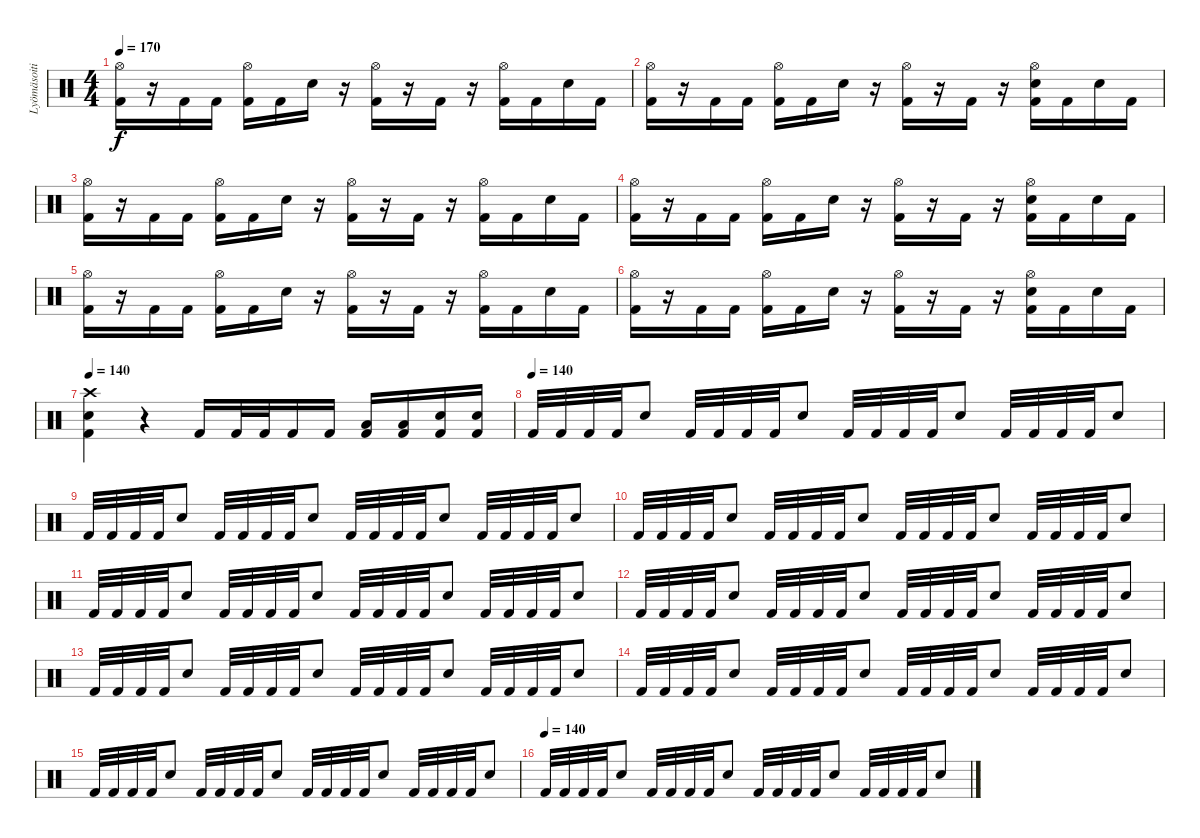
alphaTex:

\track ("Lyömäsoitin" "Lyömäsoiti") {instrument percussion}
\staff {score}
\articulation defaults
\ts (4 4)
\tempo 170
\clef neutral
\ks c
("Hi-Hat (open)" "Kick (hit) 2").16{dy f} r.16 "Kick (hit) 2".16 "Kick (hit) 2".16 ("Hi-Hat (open)" "Kick (hit) 2").16 "Kick (hit) 2".16 "Electric Snare (hit)".16 r.16 ("Hi-Hat (open)" "Kick (hit) 2").16 r.16 "Kick (hit) 2".16 r.16 ("Hi-Hat (open)" "Kick (hit) 2").16 "Kick (hit) 2".16 "Electric Snare (hit)".16 "Kick (hit) 2".16 |
("Hi-Hat (open)" "Kick (hit) 2").16 r.16 "Kick (hit) 2".16 "Kick (hit) 2".16 ("Hi-Hat (open)" "Kick (hit) 2").16 "Kick (hit) 2".16 "Electric Snare (hit)".16 r.16 ("Hi-Hat (open)" "Kick (hit) 2").16 r.16 "Kick (hit) 2".16 r.16 ("Hi-Hat (open)" "Electric Snare (hit)" "Kick (hit) 2").16 "Kick (hit) 2".16 "Electric Snare (hit)".16 "Kick (hit) 2".16 |
("Hi-Hat (open)" "Kick (hit) 2").16 r.16 "Kick (hit) 2".16 "Kick (hit) 2".16 ("Hi-Hat (open)" "Kick (hit) 2").16 "Kick (hit) 2".16 "Electric Snare (hit)".16 r.16 ("Hi-Hat (open)" "Kick (hit) 2").16 r.16 "Kick (hit) 2".16 r.16 ("Hi-Hat (open)" "Kick (hit) 2").16 "Kick (hit) 2".16 "Electric Snare (hit)".16 "Kick (hit) 2".16 |
("Hi-Hat (open)" "Kick (hit) 2").16 r.16 "Kick (hit) 2".16 "Kick (hit) 2".16 ("Hi-Hat (open)" "Kick (hit) 2").16 "Kick (hit) 2".16 "Electric Snare (hit)".16 r.16 ("Hi-Hat (open)" "Kick (hit) 2").16 r.16 "Kick (hit) 2".16 r.16 ("Hi-Hat (open)" "Electric Snare (hit)" "Kick (hit) 2").16 "Kick (hit) 2".16 "Electric Snare (hit)".16 "Kick (hit) 2".16 |
("Hi-Hat (open)" "Kick (hit) 2").16 r.16 "Kick (hit) 2".16 "Kick (hit) 2".16 ("Hi-Hat (open)" "Kick (hit) 2").16 "Kick (hit) 2".16 "Electric Snare (hit)".16 r.16 ("Hi-Hat (open)" "Kick (hit) 2").16 r.16 "Kick (hit) 2".16 r.16 ("Hi-Hat (open)" "Kick (hit) 2").16 "Kick (hit) 2".16 "Electric Snare (hit)".16 "Kick (hit) 2".16 |
("Hi-Hat (open)" "Kick (hit) 2").16 r.16 "Kick (hit) 2".16 "Kick (hit) 2".16 ("Hi-Hat (open)" "Kick (hit) 2").16 "Kick (hit) 2".16 "Electric Snare (hit)".16 r.16 ("Hi-Hat (open)" "Kick (hit) 2").16 r.16 "Kick (hit) 2".16 r.16 ("Hi-Hat (open)" "Electric Snare (hit)" "Kick (hit) 2").16 "Kick (hit) 2".16 "Electric Snare (hit)".16 "Kick (hit) 2".16 |
\tempo 140
("Crash high (hit)" "Electric Snare (hit)" "Kick (hit) 2").4 r.4 "Kick (hit) 2".16 "Kick (hit) 2".32 "Kick (hit) 2".32 "Kick (hit) 2".16 "Kick (hit) 2".16 ("Low Floor Tom (hit)" "Kick (hit) 2").16 ("Low Floor Tom (hit)" "Kick (hit) 2").16 ("Electric Snare (hit)" "Kick (hit) 2").16 ("Electric Snare (hit)" "Kick (hit) 2").16 |
\tempo (140)
"Kick (hit) 2".32 "Kick (hit) 2".32 "Kick (hit) 2".32 "Kick (hit) 2".32 "Electric Snare (hit)".8 "Kick (hit) 2".32 "Kick (hit) 2".32 "Kick (hit) 2".32 "Kick (hit) 2".32 "Electric Snare (hit)".8 "Kick (hit) 2".32 "Kick (hit) 2".32 "Kick (hit) 2".32 "Kick (hit) 2".32 "Electric Snare (hit)".8 "Kick (hit) 2".32 "Kick (hit) 2".32 "Kick (hit) 2".32 "Kick (hit) 2".32 "Electric Snare (hit)".8 |
"Kick (hit) 2".32 "Kick (hit) 2".32 "Kick (hit) 2".32 "Kick (hit) 2".32 "Electric Snare (hit)".8 "Kick (hit) 2".32 "Kick (hit) 2".32 "Kick (hit) 2".32 "Kick (hit) 2".32 "Electric Snare (hit)".8 "Kick (hit) 2".32 "Kick (hit) 2".32 "Kick (hit) 2".32 "Kick (hit) 2".32 "Electric Snare (hit)".8 "Kick (hit) 2".32 "Kick (hit) 2".32 "Kick (hit) 2".32 "Kick (hit) 2".32 "Electric Snare (hit)".8 |
"Kick (hit) 2".32 "Kick (hit) 2".32 "Kick (hit) 2".32 "Kick (hit) 2".32 "Electric Snare (hit)".8 "Kick (hit) 2".32 "Kick (hit) 2".32 "Kick (hit) 2".32 "Kick (hit) 2".32 "Electric Snare (hit)".8 "Kick (hit) 2".32 "Kick (hit) 2".32 "Kick (hit) 2".32 "Kick (hit) 2".32 "Electric Snare (hit)".8 "Kick (hit) 2".32 "Kick (hit) 2".32 "Kick (hit) 2".32 "Kick (hit) 2".32 "Electric Snare (hit)".8 |
"Kick (hit) 2".32 "Kick (hit) 2".32 "Kick (hit) 2".32 "Kick (hit) 2".32 "Electric Snare (hit)".8 "Kick (hit) 2".32 "Kick (hit) 2".32 "Kick (hit) 2".32 "Kick (hit) 2".32 "Electric Snare (hit)".8 "Kick (hit) 2".32 "Kick (hit) 2".32 "Kick (hit) 2".32 "Kick (hit) 2".32 "Electric Snare (hit)".8 "Kick (hit) 2".32 "Kick (hit) 2".32 "Kick (hit) 2".32 "Kick (hit) 2".32 "Electric Snare (hit)".8 |
"Kick (hit) 2".32 "Kick (hit) 2".32 "Kick (hit) 2".32 "Kick (hit) 2".32 "Electric Snare (hit)".8 "Kick (hit) 2".32 "Kick (hit) 2".32 "Kick (hit) 2".32 "Kick (hit) 2".32 "Electric Snare (hit)".8 "Kick (hit) 2".32 "Kick (hit) 2".32 "Kick (hit) 2".32 "Kick (hit) 2".32 "Electric Snare (hit)".8 "Kick (hit) 2".32 "Kick (hit) 2".32 "Kick (hit) 2".32 "Kick (hit) 2".32 "Electric Snare (hit)".8 |
"Kick (hit) 2".32 "Kick (hit) 2".32 "Kick (hit) 2".32 "Kick (hit) 2".32 "Electric Snare (hit)".8 "Kick (hit) 2".32 "Kick (hit) 2".32 "Kick (hit) 2".32 "Kick (hit) 2".32 "Electric Snare (hit)".8 "Kick (hit) 2".32 "Kick (hit) 2".32 "Kick (hit) 2".32 "Kick (hit) 2".32 "Electric Snare (hit)".8 "Kick (hit) 2".32 "Kick (hit) 2".32 "Kick (hit) 2".32 "Kick (hit) 2".32 "Electric Snare (hit)".8 |
"Kick (hit) 2".32 "Kick (hit) 2".32 "Kick (hit) 2".32 "Kick (hit) 2".32 "Electric Snare (hit)".8 "Kick (hit) 2".32 "Kick (hit) 2".32 "Kick (hit) 2".32 "Kick (hit) 2".32 "Electric Snare (hit)".8 "Kick (hit) 2".32 "Kick (hit) 2".32 "Kick (hit) 2".32 "Kick (hit) 2".32 "Electric Snare (hit)".8 "Kick (hit) 2".32 "Kick (hit) 2".32 "Kick (hit) 2".32 "Kick (hit) 2".32 "Electric Snare (hit)".8 |
"Kick (hit) 2".32 "Kick (hit) 2".32 "Kick (hit) 2".32 "Kick (hit) 2".32 "Electric Snare (hit)".8 "Kick (hit) 2".32 "Kick (hit) 2".32 "Kick (hit) 2".32 "Kick (hit) 2".32 "Electric Snare (hit)".8 "Kick (hit) 2".32 "Kick (hit) 2".32 "Kick (hit) 2".32 "Kick (hit) 2".32 "Electric Snare (hit)".8 "Kick (hit) 2".32 "Kick (hit) 2".32 "Kick (hit) 2".32 "Kick (hit) 2".32 "Electric Snare (hit)".8 |
\tempo (140)
"Kick (hit) 2".32 "Kick (hit) 2".32 "Kick (hit) 2".32 "Kick (hit) 2".32 "Electric Snare (hit)".8 "Kick (hit) 2".32 "Kick (hit) 2".32 "Kick (hit) 2".32 "Kick (hit) 2".32 "Electric Snare (hit)".8 "Kick (hit) 2".32 "Kick (hit) 2".32 "Kick (hit) 2".32 "Kick (hit) 2".32 "Electric Snare (hit)".8 "Kick (hit) 2".32 "Kick (hit) 2".32 "Kick (hit) 2".32 "Kick (hit) 2".32 "Electric Snare (hit)".8
